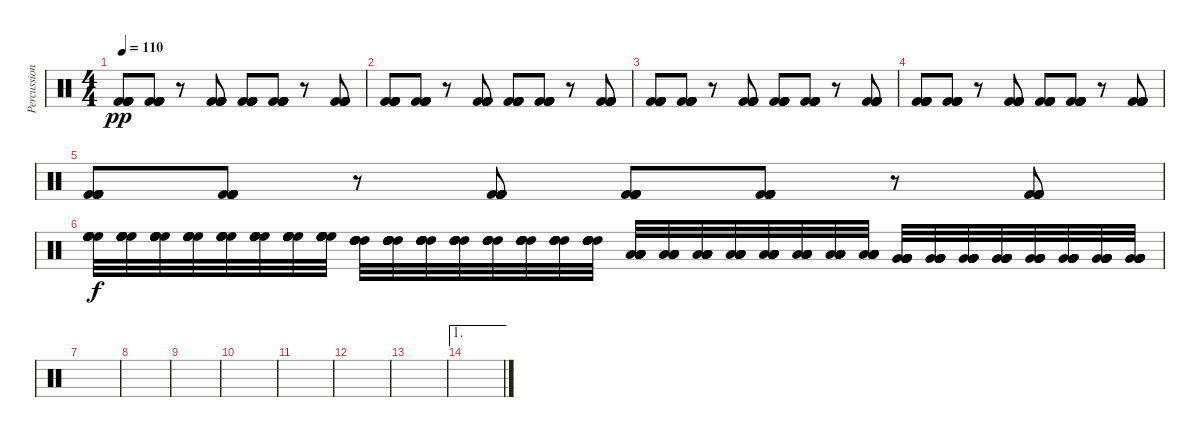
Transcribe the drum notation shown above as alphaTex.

\track ("Percussion 3" "Percussion") {instrument percussion}
\staff {score}
\articulation defaults
\ts (4 4)
\tempo 110
\clef neutral
\ks c
("Kick (hit) 2" "Kick (hit) 2" "Kick (hit) 2" "Kick (hit) 2" "Kick (hit) 2" "Kick (hit) 2").8{dy pp} ("Kick (hit) 2" "Kick (hit) 2" "Kick (hit) 2" "Kick (hit) 2" "Kick (hit) 2" "Kick (hit) 2").8 r.8 ("Kick (hit) 2" "Kick (hit) 2" "Kick (hit) 2" "Kick (hit) 2" "Kick (hit) 2" "Kick (hit) 2").8 ("Kick (hit) 2" "Kick (hit) 2" "Kick (hit) 2" "Kick (hit) 2" "Kick (hit) 2" "Kick (hit) 2").8 ("Kick (hit) 2" "Kick (hit) 2" "Kick (hit) 2" "Kick (hit) 2" "Kick (hit) 2" "Kick (hit) 2").8 r.8 ("Kick (hit) 2" "Kick (hit) 2" "Kick (hit) 2" "Kick (hit) 2" "Kick (hit) 2" "Kick (hit) 2").8 |
("Kick (hit) 2" "Kick (hit) 2" "Kick (hit) 2" "Kick (hit) 2" "Kick (hit) 2" "Kick (hit) 2").8 ("Kick (hit) 2" "Kick (hit) 2" "Kick (hit) 2" "Kick (hit) 2" "Kick (hit) 2" "Kick (hit) 2").8 r.8 ("Kick (hit) 2" "Kick (hit) 2" "Kick (hit) 2" "Kick (hit) 2" "Kick (hit) 2" "Kick (hit) 2").8 ("Kick (hit) 2" "Kick (hit) 2" "Kick (hit) 2" "Kick (hit) 2" "Kick (hit) 2" "Kick (hit) 2").8 ("Kick (hit) 2" "Kick (hit) 2" "Kick (hit) 2" "Kick (hit) 2" "Kick (hit) 2" "Kick (hit) 2").8 r.8 ("Kick (hit) 2" "Kick (hit) 2" "Kick (hit) 2" "Kick (hit) 2" "Kick (hit) 2" "Kick (hit) 2").8 |
("Kick (hit) 2" "Kick (hit) 2" "Kick (hit) 2" "Kick (hit) 2" "Kick (hit) 2" "Kick (hit) 2").8 ("Kick (hit) 2" "Kick (hit) 2" "Kick (hit) 2" "Kick (hit) 2" "Kick (hit) 2" "Kick (hit) 2").8 r.8 ("Kick (hit) 2" "Kick (hit) 2" "Kick (hit) 2" "Kick (hit) 2" "Kick (hit) 2" "Kick (hit) 2").8 ("Kick (hit) 2" "Kick (hit) 2" "Kick (hit) 2" "Kick (hit) 2" "Kick (hit) 2" "Kick (hit) 2").8 ("Kick (hit) 2" "Kick (hit) 2" "Kick (hit) 2" "Kick (hit) 2" "Kick (hit) 2" "Kick (hit) 2").8 r.8 ("Kick (hit) 2" "Kick (hit) 2" "Kick (hit) 2" "Kick (hit) 2" "Kick (hit) 2" "Kick (hit) 2").8 |
("Kick (hit) 2" "Kick (hit) 2" "Kick (hit) 2" "Kick (hit) 2" "Kick (hit) 2" "Kick (hit) 2").8 ("Kick (hit) 2" "Kick (hit) 2" "Kick (hit) 2" "Kick (hit) 2" "Kick (hit) 2" "Kick (hit) 2").8 r.8 ("Kick (hit) 2" "Kick (hit) 2" "Kick (hit) 2" "Kick (hit) 2" "Kick (hit) 2" "Kick (hit) 2").8 ("Kick (hit) 2" "Kick (hit) 2" "Kick (hit) 2" "Kick (hit) 2" "Kick (hit) 2" "Kick (hit) 2").8 ("Kick (hit) 2" "Kick (hit) 2" "Kick (hit) 2" "Kick (hit) 2" "Kick (hit) 2" "Kick (hit) 2").8 r.8 ("Kick (hit) 2" "Kick (hit) 2" "Kick (hit) 2" "Kick (hit) 2" "Kick (hit) 2" "Kick (hit) 2").8 |
("Kick (hit) 2" "Kick (hit) 2" "Kick (hit) 2" "Kick (hit) 2" "Kick (hit) 2" "Kick (hit) 2").8 ("Kick (hit) 2" "Kick (hit) 2" "Kick (hit) 2" "Kick (hit) 2" "Kick (hit) 2" "Kick (hit) 2").8 r.8 ("Kick (hit) 2" "Kick (hit) 2" "Kick (hit) 2" "Kick (hit) 2" "Kick (hit) 2" "Kick (hit) 2").8 ("Kick (hit) 2" "Kick (hit) 2" "Kick (hit) 2" "Kick (hit) 2" "Kick (hit) 2" "Kick (hit) 2").8 ("Kick (hit) 2" "Kick (hit) 2" "Kick (hit) 2" "Kick (hit) 2" "Kick (hit) 2" "Kick (hit) 2").8 r.8 ("Kick (hit) 2" "Kick (hit) 2" "Kick (hit) 2" "Kick (hit) 2" "Kick (hit) 2" "Kick (hit) 2").8 |
("High Floor Tom (hit)" "High Floor Tom (hit)" "High Floor Tom (hit)" "High Floor Tom (hit)" "High Floor Tom (hit)" "High Floor Tom (hit)").32{dy f} ("High Floor Tom (hit)" "High Floor Tom (hit)" "High Floor Tom (hit)" "High Floor Tom (hit)" "High Floor Tom (hit)" "High Floor Tom (hit)").32 ("High Floor Tom (hit)" "High Floor Tom (hit)" "High Floor Tom (hit)" "High Floor Tom (hit)" "High Floor Tom (hit)" "High Floor Tom (hit)").32 ("High Floor Tom (hit)" "High Floor Tom (hit)" "High Floor Tom (hit)" "High Floor Tom (hit)" "High Floor Tom (hit)" "High Floor Tom (hit)").32 ("High Floor Tom (hit)" "High Floor Tom (hit)" "High Floor Tom (hit)" "High Floor Tom (hit)" "High Floor Tom (hit)" "High Floor Tom (hit)").32 ("High Floor Tom (hit)" "High Floor Tom (hit)" "High Floor Tom (hit)" "High Floor Tom (hit)" "High Floor Tom (hit)" "High Floor Tom (hit)").32 ("High Floor Tom (hit)" "High Floor Tom (hit)" "High Floor Tom (hit)" "High Floor Tom (hit)" "High Floor Tom (hit)" "High Floor Tom (hit)").32 ("High Floor Tom (hit)" "High Floor Tom (hit)" "High Floor Tom (hit)" "High Floor Tom (hit)" "High Floor Tom (hit)" "High Floor Tom (hit)").32 ("High Tom (hit)" "High Tom (hit)" "High Tom (hit)" "High Tom (hit)" "High Tom (hit)" "High Tom (hit)").32 ("High Tom (hit)" "High Tom (hit)" "High Tom (hit)" "High Tom (hit)" "High Tom (hit)" "High Tom (hit)").32 ("High Tom (hit)" "High Tom (hit)" "High Tom (hit)" "High Tom (hit)" "High Tom (hit)" "High Tom (hit)").32 ("High Tom (hit)" "High Tom (hit)" "High Tom (hit)" "High Tom (hit)" "High Tom (hit)" "High Tom (hit)").32 ("High Tom (hit)" "High Tom (hit)" "High Tom (hit)" "High Tom (hit)" "High Tom (hit)" "High Tom (hit)").32 ("High Tom (hit)" "High Tom (hit)" "High Tom (hit)" "High Tom (hit)" "High Tom (hit)" "High Tom (hit)").32 ("High Tom (hit)" "High Tom (hit)" "High Tom (hit)" "High Tom (hit)" "High Tom (hit)" "High Tom (hit)").32 ("High Tom (hit)" "High Tom (hit)" "High Tom (hit)" "High Tom (hit)" "High Tom (hit)" "High Tom (hit)").32 ("Low Tom (hit)" "Low Tom (hit)" "Low Tom (hit)" "Low Tom (hit)" "Low Tom (hit)" "Low Tom (hit)").32 ("Low Tom (hit)" "Low Tom (hit)" "Low Tom (hit)" "Low Tom (hit)" "Low Tom (hit)" "Low Tom (hit)").32 ("Low Tom (hit)" "Low Tom (hit)" "Low Tom (hit)" "Low Tom (hit)" "Low Tom (hit)" "Low Tom (hit)").32 ("Low Tom (hit)" "Low Tom (hit)" "Low Tom (hit)" "Low Tom (hit)" "Low Tom (hit)" "Low Tom (hit)").32 ("Low Tom (hit)" "Low Tom (hit)" "Low Tom (hit)" "Low Tom (hit)" "Low Tom (hit)" "Low Tom (hit)").32 ("Low Tom (hit)" "Low Tom (hit)" "Low Tom (hit)" "Low Tom (hit)" "Low Tom (hit)" "Low Tom (hit)").32 ("Low Tom (hit)" "Low Tom (hit)" "Low Tom (hit)" "Low Tom (hit)" "Low Tom (hit)" "Low Tom (hit)").32 ("Low Tom (hit)" "Low Tom (hit)" "Low Tom (hit)" "Low Tom (hit)" "Low Tom (hit)" "Low Tom (hit)").32 ("Very Low Tom (hit)" "Very Low Tom (hit)" "Very Low Tom (hit)" "Very Low Tom (hit)" "Very Low Tom (hit)" "Very Low Tom (hit)").32 ("Very Low Tom (hit)" "Very Low Tom (hit)" "Very Low Tom (hit)" "Very Low Tom (hit)" "Very Low Tom (hit)" "Very Low Tom (hit)").32 ("Very Low Tom (hit)" "Very Low Tom (hit)" "Very Low Tom (hit)" "Very Low Tom (hit)" "Very Low Tom (hit)" "Very Low Tom (hit)").32 ("Very Low Tom (hit)" "Very Low Tom (hit)" "Very Low Tom (hit)" "Very Low Tom (hit)" "Very Low Tom (hit)" "Very Low Tom (hit)").32 ("Very Low Tom (hit)" "Very Low Tom (hit)" "Very Low Tom (hit)" "Very Low Tom (hit)" "Very Low Tom (hit)" "Very Low Tom (hit)").32 ("Very Low Tom (hit)" "Very Low Tom (hit)" "Very Low Tom (hit)" "Very Low Tom (hit)" "Very Low Tom (hit)" "Very Low Tom (hit)").32 ("Very Low Tom (hit)" "Very Low Tom (hit)" "Very Low Tom (hit)" "Very Low Tom (hit)" "Very Low Tom (hit)" "Very Low Tom (hit)").32 ("Very Low Tom (hit)" "Very Low Tom (hit)" "Very Low Tom (hit)" "Very Low Tom (hit)" "Very Low Tom (hit)" "Very Low Tom (hit)").32 |
|
|
|
|
|
|
|
\ae 1
